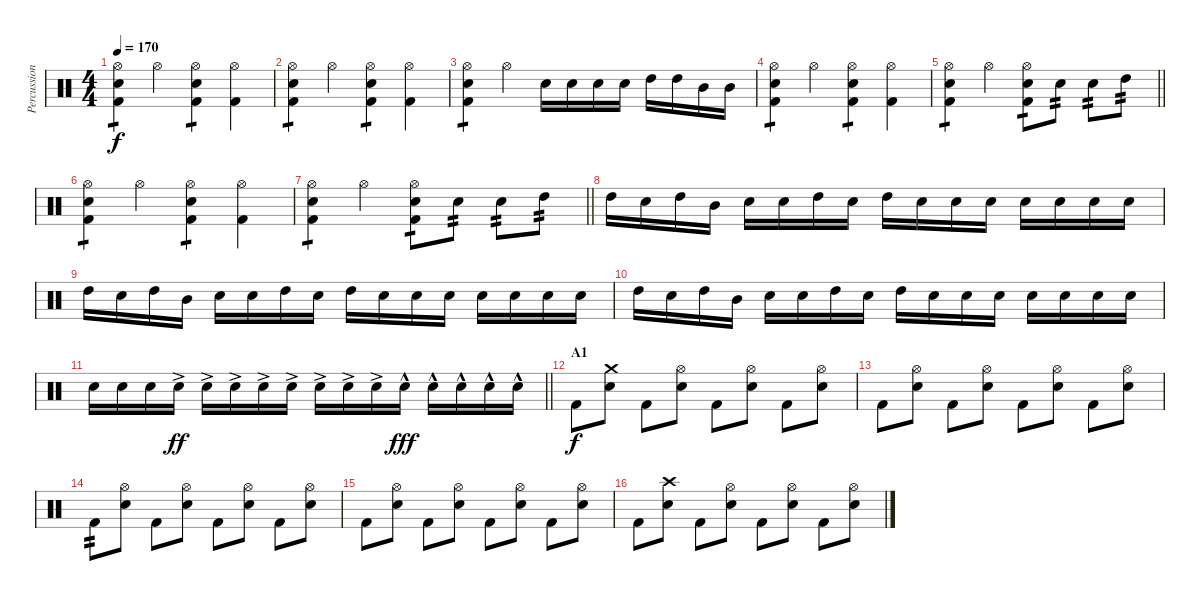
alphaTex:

\track ("Percussion" "Percussion") {instrument percussion}
\staff {score}
\articulation defaults
\ts (4 4)
\tempo 170
\clef neutral
\ks c
("Hi-Hat (open)" "Electric Snare (hit)" "Kick (hit) 2").4{tp 1 dy f} "Hi-Hat (open)".4 ("Hi-Hat (open)" "Electric Snare (hit)" "Kick (hit) 2").4{tp 1} ("Hi-Hat (open)" "Kick (hit) 2").4 |
("Hi-Hat (open)" "Electric Snare (hit)" "Kick (hit) 2").4{tp 1} "Hi-Hat (open)".4 ("Hi-Hat (open)" "Electric Snare (hit)" "Kick (hit) 2").4{tp 1} ("Hi-Hat (open)" "Kick (hit) 2").4 |
("Hi-Hat (open)" "Electric Snare (hit)" "Kick (hit) 2").4{tp 1} "Hi-Hat (open)".4 "Electric Snare (hit)".16 "Electric Snare (hit)".16 "Electric Snare (hit)".16 "Electric Snare (hit)".16 "High Tom (hit)".16 "High Tom (hit)".16 "Mid Tom (hit)".16 "Mid Tom (hit)".16 |
("Hi-Hat (open)" "Electric Snare (hit)" "Kick (hit) 2").4{tp 1} "Hi-Hat (open)".4 ("Hi-Hat (open)" "Electric Snare (hit)" "Kick (hit) 2").4{tp 1} ("Hi-Hat (open)" "Kick (hit) 2").4 |
\barLineRight lightlight
("Hi-Hat (open)" "Electric Snare (hit)" "Kick (hit) 2").4{tp 1} "Hi-Hat (open)".4 ("Hi-Hat (open)" "Electric Snare (hit)" "Kick (hit) 2").8{tp 1} "Electric Snare (hit)".8{tp 2} "Electric Snare (hit)".8{tp 2} "High Tom (hit)".8{tp 2} |
("Hi-Hat (open)" "Electric Snare (hit)" "Kick (hit) 2").4{tp 1} "Hi-Hat (open)".4 ("Hi-Hat (open)" "Electric Snare (hit)" "Kick (hit) 2").4{tp 1} ("Hi-Hat (open)" "Kick (hit) 2").4 |
\barLineRight lightlight
("Hi-Hat (open)" "Electric Snare (hit)" "Kick (hit) 2").4{tp 1} "Hi-Hat (open)".4 ("Hi-Hat (open)" "Electric Snare (hit)" "Kick (hit) 2").8{tp 1} "Electric Snare (hit)".8{tp 2} "Electric Snare (hit)".8{tp 2} "High Tom (hit)".8{tp 2} |
"High Tom (hit)".16 "Electric Snare (hit)".16 "High Tom (hit)".16 "Mid Tom (hit)".16 "Electric Snare (hit)".16 "Electric Snare (hit)".16 "High Tom (hit)".16 "Electric Snare (hit)".16 "High Tom (hit)".16 "Electric Snare (hit)".16 "Electric Snare (hit)".16 "Electric Snare (hit)".16 "Electric Snare (hit)".16 "Electric Snare (hit)".16 "Electric Snare (hit)".16 "Electric Snare (hit)".16 |
"High Tom (hit)".16 "Electric Snare (hit)".16 "High Tom (hit)".16 "Mid Tom (hit)".16 "Electric Snare (hit)".16 "Electric Snare (hit)".16 "High Tom (hit)".16 "Electric Snare (hit)".16 "High Tom (hit)".16 "Electric Snare (hit)".16 "Electric Snare (hit)".16 "Electric Snare (hit)".16 "Electric Snare (hit)".16 "Electric Snare (hit)".16 "Electric Snare (hit)".16 "Electric Snare (hit)".16 |
"High Tom (hit)".16 "Electric Snare (hit)".16 "High Tom (hit)".16 "Mid Tom (hit)".16 "Electric Snare (hit)".16 "Electric Snare (hit)".16 "High Tom (hit)".16 "Electric Snare (hit)".16 "High Tom (hit)".16 "Electric Snare (hit)".16 "Electric Snare (hit)".16 "Electric Snare (hit)".16 "Electric Snare (hit)".16 "Electric Snare (hit)".16 "Electric Snare (hit)".16 "Electric Snare (hit)".16 |
\barLineRight lightlight "Electric Snare (hit)".16 "Electric Snare (hit)".16 "Electric Snare (hit)".16 "Electric Snare (hit)"{ac}.16{dy ff} "Electric Snare (hit)"{ac}.16 "Electric Snare (hit)"{ac}.16 "Electric Snare (hit)"{ac}.16 "Electric Snare (hit)"{ac}.16 "Electric Snare (hit)"{ac}.16 "Electric Snare (hit)"{ac}.16 "Electric Snare (hit)"{ac}.16 "Electric Snare (hit)"{hac}.16{dy fff} "Electric Snare (hit)"{hac}.16 "Electric Snare (hit)"{hac}.16 "Electric Snare (hit)"{hac}.16 "Electric Snare (hit)"{hac}.16
|
\section ("" "A1")
"Kick (hit) 2".8{dy f} ("Crash medium (hit)" "Electric Snare (hit)").8 "Kick (hit) 2".8 ("Hi-Hat (open)" "Electric Snare (hit)").8 "Kick (hit) 2".8 ("Hi-Hat (open)" "Electric Snare (hit)").8 "Kick (hit) 2".8 ("Hi-Hat (open)" "Electric Snare (hit)").8 |
"Kick (hit) 2".8 ("Hi-Hat (open)" "Electric Snare (hit)").8 "Kick (hit) 2".8 ("Hi-Hat (open)" "Electric Snare (hit)").8 "Kick (hit) 2".8 ("Hi-Hat (open)" "Electric Snare (hit)").8 "Kick (hit) 2".8 ("Hi-Hat (open)" "Electric Snare (hit)").8 |
"Kick (hit) 2".8{tp 2} ("Hi-Hat (open)" "Electric Snare (hit)").8 "Kick (hit) 2".8 ("Hi-Hat (open)" "Electric Snare (hit)").8 "Kick (hit) 2".8 ("Hi-Hat (open)" "Electric Snare (hit)").8 "Kick (hit) 2".8 ("Hi-Hat (open)" "Electric Snare (hit)").8 |
"Kick (hit) 2".8 ("Hi-Hat (open)" "Electric Snare (hit)").8 "Kick (hit) 2".8 ("Hi-Hat (open)" "Electric Snare (hit)").8 "Kick (hit) 2".8 ("Hi-Hat (open)" "Electric Snare (hit)").8 "Kick (hit) 2".8 ("Hi-Hat (open)" "Electric Snare (hit)").8 |
"Kick (hit) 2".8 ("Crash high (hit)" "Electric Snare (hit)").8 "Kick (hit) 2".8 ("Hi-Hat (open)" "Electric Snare (hit)").8 "Kick (hit) 2".8 ("Hi-Hat (open)" "Electric Snare (hit)").8 "Kick (hit) 2".8 ("Hi-Hat (open)" "Electric Snare (hit)").8
